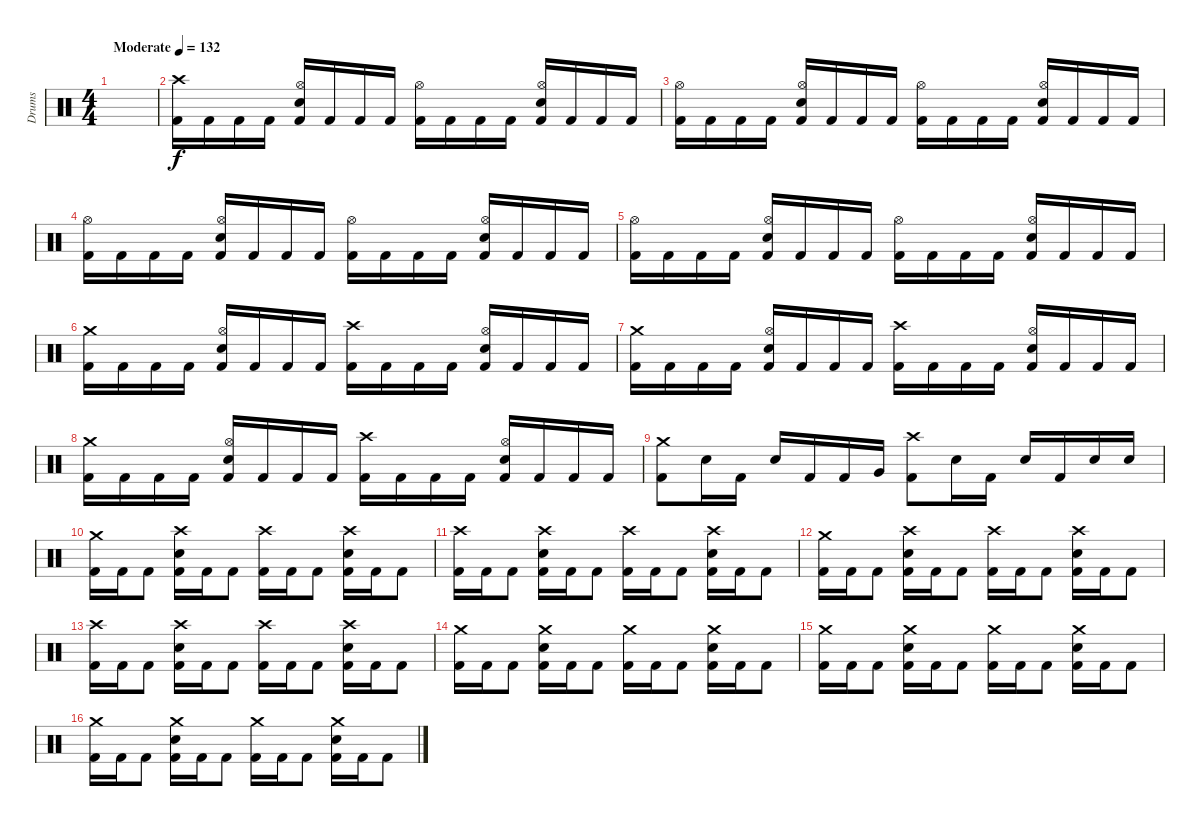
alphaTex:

\track ("Drums" "Drums") {instrument percussion}
\staff {score}
\articulation defaults
\ts (4 4)
\tempo (132 "Moderate")
\clef neutral
\ks c
|
("Crash high (hit)" "Kick (hit) 2").16 "Kick (hit) 2".16 "Kick (hit) 2".16 "Kick (hit) 2".16 ("Hi-Hat (open)" "Electric Snare (hit)" "Kick (hit) 2").16 "Kick (hit) 2".16 "Kick (hit) 2".16 "Kick (hit) 2".16 ("Hi-Hat (open)" "Kick (hit) 2").16 "Kick (hit) 2".16 "Kick (hit) 2".16 "Kick (hit) 2".16 ("Hi-Hat (open)" "Electric Snare (hit)" "Kick (hit) 2").16 "Kick (hit) 2".16 "Kick (hit) 2".16 "Kick (hit) 2".16 |
("Hi-Hat (open)" "Kick (hit) 2").16 "Kick (hit) 2".16 "Kick (hit) 2".16 "Kick (hit) 2".16 ("Hi-Hat (open)" "Electric Snare (hit)" "Kick (hit) 2").16 "Kick (hit) 2".16 "Kick (hit) 2".16 "Kick (hit) 2".16 ("Hi-Hat (open)" "Kick (hit) 2").16 "Kick (hit) 2".16 "Kick (hit) 2".16 "Kick (hit) 2".16 ("Hi-Hat (open)" "Electric Snare (hit)" "Kick (hit) 2").16 "Kick (hit) 2".16 "Kick (hit) 2".16 "Kick (hit) 2".16 |
("Hi-Hat (open)" "Kick (hit) 2").16 "Kick (hit) 2".16 "Kick (hit) 2".16 "Kick (hit) 2".16 ("Hi-Hat (open)" "Electric Snare (hit)" "Kick (hit) 2").16 "Kick (hit) 2".16 "Kick (hit) 2".16 "Kick (hit) 2".16 ("Hi-Hat (open)" "Kick (hit) 2").16 "Kick (hit) 2".16 "Kick (hit) 2".16 "Kick (hit) 2".16 ("Hi-Hat (open)" "Electric Snare (hit)" "Kick (hit) 2").16 "Kick (hit) 2".16 "Kick (hit) 2".16 "Kick (hit) 2".16 |
("Hi-Hat (open)" "Kick (hit) 2").16 "Kick (hit) 2".16 "Kick (hit) 2".16 "Kick (hit) 2".16 ("Hi-Hat (open)" "Electric Snare (hit)" "Kick (hit) 2").16 "Kick (hit) 2".16 "Kick (hit) 2".16 "Kick (hit) 2".16 ("Hi-Hat (open)" "Kick (hit) 2").16 "Kick (hit) 2".16 "Kick (hit) 2".16 "Kick (hit) 2".16 ("Hi-Hat (open)" "Electric Snare (hit)" "Kick (hit) 2").16 "Kick (hit) 2".16 "Kick (hit) 2".16 "Kick (hit) 2".16 |
("Crash medium (hit)" "Kick (hit) 2").16 "Kick (hit) 2".16 "Kick (hit) 2".16 "Kick (hit) 2".16 ("Hi-Hat (open)" "Electric Snare (hit)" "Kick (hit) 2").16 "Kick (hit) 2".16 "Kick (hit) 2".16 "Kick (hit) 2".16 ("Crash high (hit)" "Kick (hit) 2").16 "Kick (hit) 2".16 "Kick (hit) 2".16 "Kick (hit) 2".16 ("Hi-Hat (open)" "Electric Snare (hit)" "Kick (hit) 2").16 "Kick (hit) 2".16 "Kick (hit) 2".16 "Kick (hit) 2".16 |
("Crash medium (hit)" "Kick (hit) 2").16 "Kick (hit) 2".16 "Kick (hit) 2".16 "Kick (hit) 2".16 ("Hi-Hat (open)" "Electric Snare (hit)" "Kick (hit) 2").16 "Kick (hit) 2".16 "Kick (hit) 2".16 "Kick (hit) 2".16 ("Crash high (hit)" "Kick (hit) 2").16 "Kick (hit) 2".16 "Kick (hit) 2".16 "Kick (hit) 2".16 ("Hi-Hat (open)" "Electric Snare (hit)" "Kick (hit) 2").16 "Kick (hit) 2".16 "Kick (hit) 2".16 "Kick (hit) 2".16 |
("Crash medium (hit)" "Kick (hit) 2").16 "Kick (hit) 2".16 "Kick (hit) 2".16 "Kick (hit) 2".16 ("Hi-Hat (open)" "Electric Snare (hit)" "Kick (hit) 2").16 "Kick (hit) 2".16 "Kick (hit) 2".16 "Kick (hit) 2".16 ("Crash high (hit)" "Kick (hit) 2").16 "Kick (hit) 2".16 "Kick (hit) 2".16 "Kick (hit) 2".16 ("Hi-Hat (open)" "Electric Snare (hit)" "Kick (hit) 2").16 "Kick (hit) 2".16 "Kick (hit) 2".16 "Kick (hit) 2".16 |
("Crash medium (hit)" "Kick (hit) 2").8 "Electric Snare (hit)".16 "Kick (hit) 2".16 "Electric Snare (hit)".16 "Kick (hit) 2".16 "Kick (hit) 2".16 "Very Low Tom (hit)".16 ("Crash high (hit)" "Kick (hit) 2").8 "Electric Snare (hit)".16 "Kick (hit) 2".16 "Electric Snare (hit)".16 "Kick (hit) 2".16 "Electric Snare (hit)".16 "Electric Snare (hit)".16 |
("Crash medium (hit)" "Kick (hit) 2").16 "Kick (hit) 2".16 "Kick (hit) 2".8 ("Crash high (hit)" "Electric Snare (hit)" "Kick (hit) 2").16 "Kick (hit) 2".16 "Kick (hit) 2".8 ("Crash high (hit)" "Kick (hit) 2").16 "Kick (hit) 2".16 "Kick (hit) 2".8 ("Crash high (hit)" "Electric Snare (hit)" "Kick (hit) 2").16 "Kick (hit) 2".16 "Kick (hit) 2".8 |
("Crash high (hit)" "Kick (hit) 2").16 "Kick (hit) 2".16 "Kick (hit) 2".8 ("Crash high (hit)" "Electric Snare (hit)" "Kick (hit) 2").16 "Kick (hit) 2".16 "Kick (hit) 2".8 ("Crash high (hit)" "Kick (hit) 2").16 "Kick (hit) 2".16 "Kick (hit) 2".8 ("Crash high (hit)" "Electric Snare (hit)" "Kick (hit) 2").16 "Kick (hit) 2".16 "Kick (hit) 2".8 |
("Crash medium (hit)" "Kick (hit) 2").16 "Kick (hit) 2".16 "Kick (hit) 2".8 ("Crash high (hit)" "Electric Snare (hit)" "Kick (hit) 2").16 "Kick (hit) 2".16 "Kick (hit) 2".8 ("Crash high (hit)" "Kick (hit) 2").16 "Kick (hit) 2".16 "Kick (hit) 2".8 ("Crash high (hit)" "Electric Snare (hit)" "Kick (hit) 2").16 "Kick (hit) 2".16 "Kick (hit) 2".8 |
("Crash high (hit)" "Kick (hit) 2").16 "Kick (hit) 2".16 "Kick (hit) 2".8 ("Crash high (hit)" "Electric Snare (hit)" "Kick (hit) 2").16 "Kick (hit) 2".16 "Kick (hit) 2".8 ("Crash high (hit)" "Kick (hit) 2").16 "Kick (hit) 2".16 "Kick (hit) 2".8 ("Crash high (hit)" "Electric Snare (hit)" "Kick (hit) 2").16 "Kick (hit) 2".16 "Kick (hit) 2".8 |
("Crash medium (hit)" "Kick (hit) 2").16 "Kick (hit) 2".16 "Kick (hit) 2".8 ("Crash medium (hit)" "Electric Snare (hit)" "Kick (hit) 2").16 "Kick (hit) 2".16 "Kick (hit) 2".8 ("Crash medium (hit)" "Kick (hit) 2").16 "Kick (hit) 2".16 "Kick (hit) 2".8 ("Crash medium (hit)" "Electric Snare (hit)" "Kick (hit) 2").16 "Kick (hit) 2".16 "Kick (hit) 2".8 |
("Crash medium (hit)" "Kick (hit) 2").16 "Kick (hit) 2".16 "Kick (hit) 2".8 ("Crash medium (hit)" "Electric Snare (hit)" "Kick (hit) 2").16 "Kick (hit) 2".16 "Kick (hit) 2".8 ("Crash medium (hit)" "Kick (hit) 2").16 "Kick (hit) 2".16 "Kick (hit) 2".8 ("Crash medium (hit)" "Electric Snare (hit)" "Kick (hit) 2").16 "Kick (hit) 2".16 "Kick (hit) 2".8 |
("Crash medium (hit)" "Kick (hit) 2").16 "Kick (hit) 2".16 "Kick (hit) 2".8 ("Crash medium (hit)" "Electric Snare (hit)" "Kick (hit) 2").16 "Kick (hit) 2".16 "Kick (hit) 2".8 ("Crash medium (hit)" "Kick (hit) 2").16 "Kick (hit) 2".16 "Kick (hit) 2".8 ("Crash medium (hit)" "Electric Snare (hit)" "Kick (hit) 2").16 "Kick (hit) 2".16 "Kick (hit) 2".8
